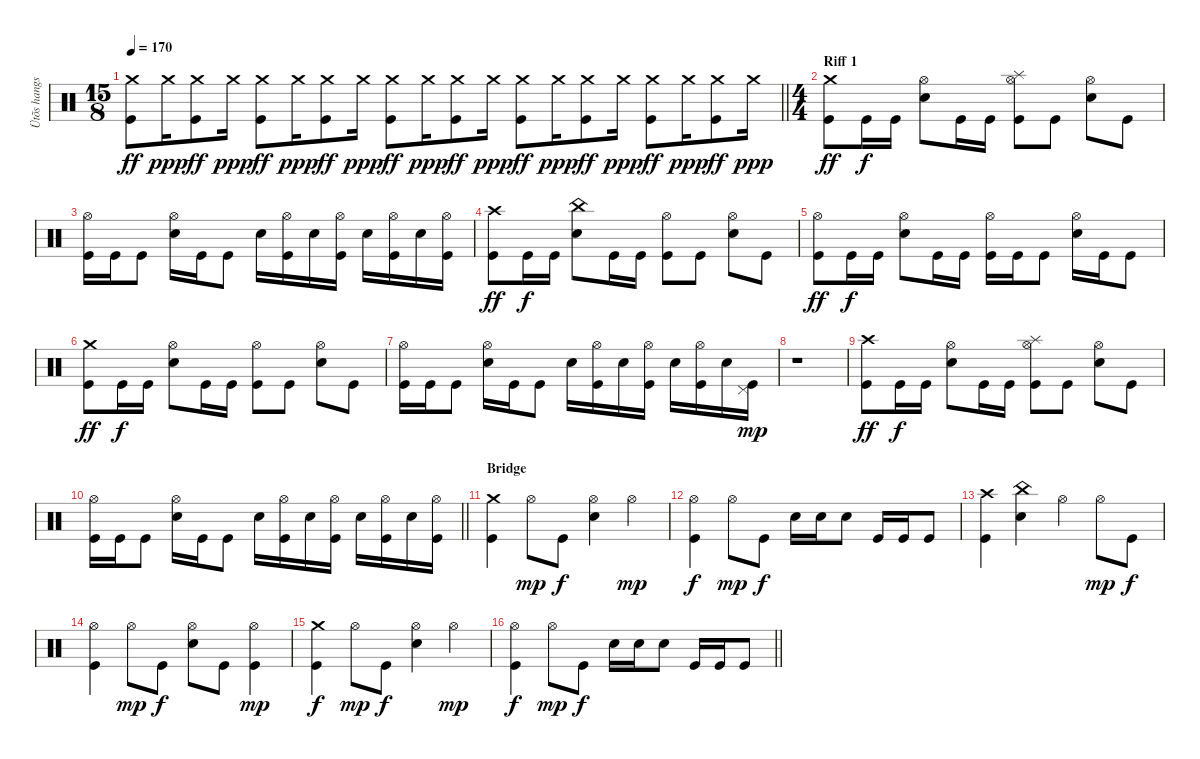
\track ("Ütõs hangszer" "Ütõs hangs") {instrument percussion}
\staff {score}
\articulation defaults
\ts (15 8)
\tempo 170
\clef neutral
\barLineRight lightlight
\ks c
("Crash medium (hit)" "Kick (hit)").8{dy ff} "Crash medium (hit)".16{dy ppp} ("Crash medium (hit)" "Kick (hit)").8{dy ff} "Crash medium (hit)".16{dy ppp} ("Crash medium (hit)" "Kick (hit)").8{dy ff} "Crash medium (hit)".16{dy ppp} ("Crash medium (hit)" "Kick (hit)").8{dy ff} "Crash medium (hit)".16{dy ppp} ("Crash medium (hit)" "Kick (hit)").8{dy ff} "Crash medium (hit)".16{dy ppp} ("Crash medium (hit)" "Kick (hit)").8{dy ff} "Crash medium (hit)".16{dy ppp} ("Crash medium (hit)" "Kick (hit)").8{dy ff} "Crash medium (hit)".16{dy ppp} ("Crash medium (hit)" "Kick (hit)").8{dy ff} "Crash medium (hit)".16{dy ppp} ("Crash medium (hit)" "Kick (hit)").8{dy ff} "Crash medium (hit)".16{dy ppp} ("Crash medium (hit)" "Kick (hit)").8{dy ff} "Crash medium (hit)".16{dy ppp} |
\ts (4 4)
\section ("" "Riff 1")
("Crash medium (hit)" "Kick (hit)").8{dy ff} "Kick (hit)".16{dy f} "Kick (hit)".16 ("Hi-Hat (open)" "Electric Snare (hit)").8 "Kick (hit)".16 "Kick (hit)".16 ("Splash (hit)" "Hi-Hat (open)" "Kick (hit)").8 "Kick (hit)".8 ("Hi-Hat (open)" "Electric Snare (hit)").8 "Kick (hit)".8 |
("Hi-Hat (open)" "Kick (hit)").16 "Kick (hit)".16 "Kick (hit)".8 ("Hi-Hat (open)" "Electric Snare (hit)").16 "Kick (hit)".16 "Kick (hit)".8 "Electric Snare (hit)".16 ("Hi-Hat (open)" "Kick (hit)").16 "Electric Snare (hit)".16 ("Hi-Hat (open)" "Kick (hit)").16 "Electric Snare (hit)".16 ("Hi-Hat (open)" "Kick (hit)").16 "Electric Snare (hit)".16 ("Hi-Hat (open)" "Kick (hit)").16 |
("Crash high (hit)" "Kick (hit)").8{dy ff} "Kick (hit)".16{dy f} "Kick (hit)".16 ("China (hit)" "Electric Snare (hit)").8 "Kick (hit)".16 "Kick (hit)".16 ("Hi-Hat (open)" "Kick (hit)").8 "Kick (hit)".8 ("Hi-Hat (open)" "Electric Snare (hit)").8 "Kick (hit)".8 |
("Hi-Hat (open)" "Kick (hit)").8{dy ff} "Kick (hit)".16{dy f} "Kick (hit)".16 ("Hi-Hat (open)" "Electric Snare (hit)").8 "Kick (hit)".16 "Kick (hit)".16 ("Hi-Hat (open)" "Kick (hit)").16 "Kick (hit)".16 "Kick (hit)".8 ("Hi-Hat (open)" "Electric Snare (hit)").16 "Kick (hit)".16 "Kick (hit)".8 |
("Crash medium (hit)" "Kick (hit)").8{dy ff} "Kick (hit)".16{dy f} "Kick (hit)".16 ("Hi-Hat (open)" "Electric Snare (hit)").8 "Kick (hit)".16 "Kick (hit)".16 ("Hi-Hat (open)" "Kick (hit)").8 "Kick (hit)".8 ("Hi-Hat (open)" "Electric Snare (hit)").8 "Kick (hit)".8 |
("Hi-Hat (open)" "Kick (hit)").16 "Kick (hit)".16 "Kick (hit)".8 ("Hi-Hat (open)" "Electric Snare (hit)").16 "Kick (hit)".16 "Kick (hit)".8 "Electric Snare (hit)".16 ("Hi-Hat (open)" "Kick (hit)").16 "Electric Snare (hit)".16 ("Hi-Hat (open)" "Kick (hit)").16 "Electric Snare (hit)".16 ("Hi-Hat (open)" "Kick (hit)").16 "Electric Snare (hit)".16 ("Pedal Hi-Hat (hit)" "Kick (hit)").16{dy mp} |
r.1 |
("Crash high (hit)" "Kick (hit)").8{dy ff} "Kick (hit)".16{dy f} "Kick (hit)".16 ("Hi-Hat (open)" "Electric Snare (hit)").8 "Kick (hit)".16 "Kick (hit)".16 ("Splash (hit)" "Hi-Hat (open)" "Kick (hit)").8 "Kick (hit)".8 ("Hi-Hat (open)" "Electric Snare (hit)").8 "Kick (hit)".8 |
\barLineRight lightlight
("Hi-Hat (open)" "Kick (hit)").16 "Kick (hit)".16 "Kick (hit)".8 ("Hi-Hat (open)" "Electric Snare (hit)").16 "Kick (hit)".16 "Kick (hit)".8 "Electric Snare (hit)".16 ("Hi-Hat (open)" "Kick (hit)").16 "Electric Snare (hit)".16 ("Hi-Hat (open)" "Kick (hit)").16 "Electric Snare (hit)".16 ("Hi-Hat (open)" "Kick (hit)").16 "Electric Snare (hit)".16 ("Hi-Hat (open)" "Kick (hit)").16 |
\section ("" "Bridge")
("Crash medium (hit)" "Kick (hit)").4 "Hi-Hat (open)".8{dy mp} "Kick (hit)".8{dy f} ("Hi-Hat (open)" "Electric Snare (hit)").4 "Hi-Hat (open)".4{dy mp} |
("Hi-Hat (open)" "Kick (hit)").4{dy f} "Hi-Hat (open)".8{dy mp} "Kick (hit)".8{dy f} "Electric Snare (hit)".16 "Electric Snare (hit)".16 "Electric Snare (hit)".8 "Kick (hit)".16 "Kick (hit)".16 "Kick (hit)".8 |
("Crash high (hit)" "Kick (hit)").4 ("China (hit)" "Electric Snare (hit)").4 "Hi-Hat (open)".4 "Hi-Hat (open)".8{dy mp} "Kick (hit)".8{dy f} |
("Hi-Hat (open)" "Kick (hit)").4 "Hi-Hat (open)".8{dy mp} "Kick (hit)".8{dy f} ("Hi-Hat (open)" "Electric Snare (hit)").8 "Kick (hit)".8 ("Hi-Hat (open)" "Kick (hit)").4{dy mp} |
("Crash medium (hit)" "Kick (hit)").4{dy f} "Hi-Hat (open)".8{dy mp} "Kick (hit)".8{dy f} ("Hi-Hat (open)" "Electric Snare (hit)").4 "Hi-Hat (open)".4{dy mp} |
\barLineRight lightlight
("Hi-Hat (open)" "Kick (hit)").4{dy f} "Hi-Hat (open)".8{dy mp} "Kick (hit)".8{dy f} "Electric Snare (hit)".16 "Electric Snare (hit)".16 "Electric Snare (hit)".8 "Kick (hit)".16 "Kick (hit)".16 "Kick (hit)".8
